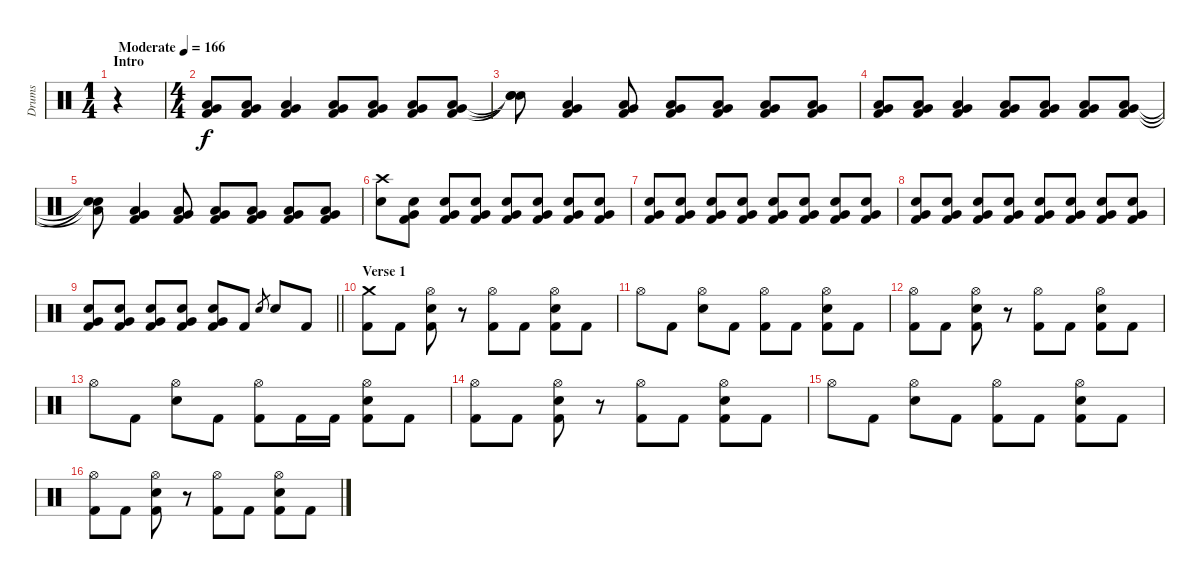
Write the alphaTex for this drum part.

\track ("Drums" "Drums") {instrument percussion}
\staff {score}
\articulation defaults
\ts (1 4)
\section ("" "Intro")
\tempo (166 "Moderate")
\clef neutral
\ks c
r.4{dy f volume 16} |
\ts (4 4)
("Very Low Tom (hit)" "Low Floor Tom (hit)" "Kick (hit) 2").8 ("Very Low Tom (hit)" "Low Floor Tom (hit)" "Kick (hit) 2").8 ("Very Low Tom (hit)" "Low Floor Tom (hit)" "Kick (hit) 2").4 ("Very Low Tom (hit)" "Low Floor Tom (hit)" "Kick (hit) 2").8 ("Very Low Tom (hit)" "Low Floor Tom (hit)" "Kick (hit) 2").8 ("Very Low Tom (hit)" "Low Floor Tom (hit)" "Kick (hit) 2").8 ("Very Low Tom (hit)" "Low Floor Tom (hit)" "Kick (hit) 2").8 |
("Snare (hit)"{t} "Snare (hit)"{t} "Snare (hit)"{t}).8 ("Very Low Tom (hit)" "Low Floor Tom (hit)" "Kick (hit) 2").4 ("Very Low Tom (hit)" "Low Floor Tom (hit)" "Kick (hit) 2").8 ("Very Low Tom (hit)" "Low Floor Tom (hit)" "Kick (hit) 2").8 ("Very Low Tom (hit)" "Low Floor Tom (hit)" "Kick (hit) 2").8 ("Very Low Tom (hit)" "Low Floor Tom (hit)" "Kick (hit) 2").8 ("Very Low Tom (hit)" "Low Floor Tom (hit)" "Kick (hit) 2").8 |
("Very Low Tom (hit)" "Low Floor Tom (hit)" "Kick (hit) 2").8 ("Very Low Tom (hit)" "Low Floor Tom (hit)" "Kick (hit) 2").8 ("Very Low Tom (hit)" "Low Floor Tom (hit)" "Kick (hit) 2").4 ("Very Low Tom (hit)" "Low Floor Tom (hit)" "Kick (hit) 2").8 ("Very Low Tom (hit)" "Low Floor Tom (hit)" "Kick (hit) 2").8 ("Very Low Tom (hit)" "Low Floor Tom (hit)" "Kick (hit) 2").8 ("Very Low Tom (hit)" "Low Floor Tom (hit)" "Kick (hit) 2").8 |
("Low Tom (hit)"{t} "Snare (hit)"{t} "Snare (hit)"{t}).8 ("Very Low Tom (hit)" "Low Floor Tom (hit)" "Kick (hit) 2").4 ("Very Low Tom (hit)" "Low Floor Tom (hit)" "Kick (hit) 2").8 ("Very Low Tom (hit)" "Low Floor Tom (hit)" "Kick (hit) 2").8 ("Very Low Tom (hit)" "Low Floor Tom (hit)" "Kick (hit) 2").8 ("Very Low Tom (hit)" "Low Floor Tom (hit)" "Kick (hit) 2").8 ("Very Low Tom (hit)" "Low Floor Tom (hit)" "Kick (hit) 2").8 |
("Crash high (hit)" "Electric Snare (hit)").8 ("Very Low Tom (hit)" "Electric Snare (hit)" "Kick (hit) 2").8{volume 10} ("Very Low Tom (hit)" "Electric Snare (hit)" "Kick (hit) 2").8{volume 16} ("Very Low Tom (hit)" "Electric Snare (hit)" "Kick (hit) 2").8 ("Very Low Tom (hit)" "Electric Snare (hit)" "Kick (hit) 2").8 ("Very Low Tom (hit)" "Electric Snare (hit)" "Kick (hit) 2").8 ("Very Low Tom (hit)" "Electric Snare (hit)" "Kick (hit) 2").8 ("Very Low Tom (hit)" "Electric Snare (hit)" "Kick (hit) 2").8 |
("Very Low Tom (hit)" "Electric Snare (hit)" "Kick (hit) 2").8 ("Very Low Tom (hit)" "Electric Snare (hit)" "Kick (hit) 2").8 ("Very Low Tom (hit)" "Electric Snare (hit)" "Kick (hit) 2").8 ("Very Low Tom (hit)" "Electric Snare (hit)" "Kick (hit) 2").8 ("Very Low Tom (hit)" "Electric Snare (hit)" "Kick (hit) 2").8 ("Very Low Tom (hit)" "Electric Snare (hit)" "Kick (hit) 2").8 ("Very Low Tom (hit)" "Electric Snare (hit)" "Kick (hit) 2").8 ("Very Low Tom (hit)" "Electric Snare (hit)" "Kick (hit) 2").8 |
("Very Low Tom (hit)" "Electric Snare (hit)" "Kick (hit) 2").8 ("Very Low Tom (hit)" "Electric Snare (hit)" "Kick (hit) 2").8 ("Very Low Tom (hit)" "Electric Snare (hit)" "Kick (hit) 2").8 ("Very Low Tom (hit)" "Electric Snare (hit)" "Kick (hit) 2").8 ("Very Low Tom (hit)" "Electric Snare (hit)" "Kick (hit) 2").8 ("Very Low Tom (hit)" "Electric Snare (hit)" "Kick (hit) 2").8 ("Very Low Tom (hit)" "Electric Snare (hit)" "Kick (hit) 2").8 ("Very Low Tom (hit)" "Electric Snare (hit)" "Kick (hit) 2").8 |
\barLineRight lightlight
("Very Low Tom (hit)" "Electric Snare (hit)" "Kick (hit) 2").8 ("Very Low Tom (hit)" "Electric Snare (hit)" "Kick (hit) 2").8 ("Very Low Tom (hit)" "Electric Snare (hit)" "Kick (hit) 2").8 ("Very Low Tom (hit)" "Electric Snare (hit)" "Kick (hit) 2").8 ("Very Low Tom (hit)" "Electric Snare (hit)" "Kick (hit) 2").8 "Kick (hit) 2".8 "Electric Snare (hit)".8{gr} "Electric Snare (hit)".8 "Kick (hit) 2".8 |
\section ("" "Verse 1")
("Crash medium (hit)" "Kick (hit) 2").8{volume 16} "Kick (hit) 2".8 ("Hi-Hat (open)" "Electric Snare (hit)" "Kick (hit) 2").8 r.8 ("Hi-Hat (open)" "Kick (hit) 2").8 "Kick (hit) 2".8 ("Hi-Hat (open)" "Electric Snare (hit)" "Kick (hit) 2").8 "Kick (hit) 2".8 |
"Hi-Hat (open)".8 "Kick (hit) 2".8 ("Hi-Hat (open)" "Electric Snare (hit)").8 "Kick (hit) 2".8 ("Hi-Hat (open)" "Kick (hit) 2").8 "Kick (hit) 2".8 ("Hi-Hat (open)" "Electric Snare (hit)" "Kick (hit) 2").8 "Kick (hit) 2".8 |
("Hi-Hat (open)" "Kick (hit) 2").8 "Kick (hit) 2".8 ("Hi-Hat (open)" "Electric Snare (hit)" "Kick (hit) 2").8 r.8 ("Hi-Hat (open)" "Kick (hit) 2").8 "Kick (hit) 2".8 ("Hi-Hat (open)" "Electric Snare (hit)" "Kick (hit) 2").8 "Kick (hit) 2".8 |
"Hi-Hat (open)".8 "Kick (hit) 2".8 ("Hi-Hat (open)" "Electric Snare (hit)").8 "Kick (hit) 2".8 ("Hi-Hat (open)" "Kick (hit) 2").8 "Kick (hit) 2".16 "Kick (hit) 2".16 ("Hi-Hat (open)" "Electric Snare (hit)" "Kick (hit) 2").8 "Kick (hit) 2".8 |
("Hi-Hat (open)" "Kick (hit) 2").8 "Kick (hit) 2".8 ("Hi-Hat (open)" "Electric Snare (hit)" "Kick (hit) 2").8 r.8 ("Hi-Hat (open)" "Kick (hit) 2").8 "Kick (hit) 2".8 ("Hi-Hat (open)" "Electric Snare (hit)" "Kick (hit) 2").8 "Kick (hit) 2".8 |
"Hi-Hat (open)".8 "Kick (hit) 2".8 ("Hi-Hat (open)" "Electric Snare (hit)").8 "Kick (hit) 2".8 ("Hi-Hat (open)" "Kick (hit) 2").8 "Kick (hit) 2".8 ("Hi-Hat (open)" "Electric Snare (hit)" "Kick (hit) 2").8 "Kick (hit) 2".8 |
("Hi-Hat (open)" "Kick (hit) 2").8 "Kick (hit) 2".8 ("Hi-Hat (open)" "Electric Snare (hit)" "Kick (hit) 2").8 r.8 ("Hi-Hat (open)" "Kick (hit) 2").8 "Kick (hit) 2".8 ("Hi-Hat (open)" "Electric Snare (hit)" "Kick (hit) 2").8 "Kick (hit) 2".8
